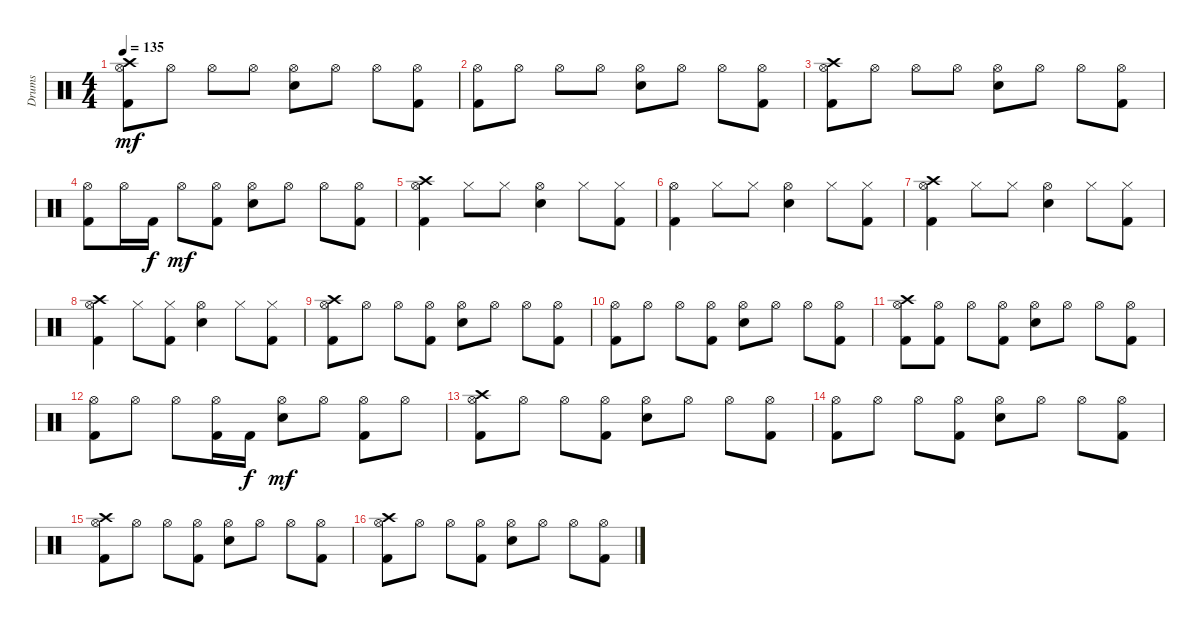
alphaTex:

\track ("Drums" "Drums") {instrument percussion}
\staff {score}
\articulation defaults
\ts (4 4)
\tempo 135
\clef neutral
\ks c
("Kick (hit) 2" "Hi-Hat (open)" "Crash high (hit)").8{dy mf} "Hi-Hat (open)".8 "Hi-Hat (open)".8 "Hi-Hat (open)".8 ("Snare (hit) 2" "Hi-Hat (open)").8 "Hi-Hat (open)".8 "Hi-Hat (open)".8 ("Kick (hit) 2" "Hi-Hat (open)").8 |
("Kick (hit) 2" "Hi-Hat (open)").8 "Hi-Hat (open)".8 "Hi-Hat (open)".8 "Hi-Hat (open)".8 ("Snare (hit) 2" "Hi-Hat (open)").8 "Hi-Hat (open)".8 "Hi-Hat (open)".8 ("Kick (hit) 2" "Hi-Hat (open)").8 |
("Kick (hit) 2" "Hi-Hat (open)" "Crash high (hit)").8 "Hi-Hat (open)".8 "Hi-Hat (open)".8 "Hi-Hat (open)".8 ("Snare (hit) 2" "Hi-Hat (open)").8 "Hi-Hat (open)".8 "Hi-Hat (open)".8 ("Kick (hit) 2" "Hi-Hat (open)").8 |
("Kick (hit) 2" "Hi-Hat (open)").8 "Hi-Hat (open)".16 "Kick (hit) 2".16{dy f} "Hi-Hat (open)".8{dy mf} ("Kick (hit) 2" "Hi-Hat (open)").8 ("Snare (hit) 2" "Hi-Hat (open)").8 "Hi-Hat (open)".8 "Hi-Hat (open)".8 ("Kick (hit) 2" "Hi-Hat (open)").8 |
("Kick (hit) 2" "Hi-Hat (open)" "Crash high (hit)").4 "Hi-Hat (closed)".8 "Hi-Hat (closed)".8 ("Snare (hit) 2" "Hi-Hat (open)").4 "Hi-Hat (closed)".8 ("Kick (hit) 2" "Hi-Hat (closed)").8 |
("Kick (hit) 2" "Hi-Hat (open)").4 "Hi-Hat (closed)".8 "Hi-Hat (closed)".8 ("Snare (hit) 2" "Hi-Hat (open)").4 "Hi-Hat (closed)".8 ("Kick (hit) 2" "Hi-Hat (closed)").8 |
("Kick (hit) 2" "Hi-Hat (open)" "Crash high (hit)").4 "Hi-Hat (closed)".8 "Hi-Hat (closed)".8 ("Snare (hit) 2" "Hi-Hat (open)").4 "Hi-Hat (closed)".8 ("Kick (hit) 2" "Hi-Hat (closed)").8 |
("Kick (hit) 2" "Hi-Hat (open)" "Crash high (hit)").4 "Hi-Hat (closed)".8 ("Kick (hit) 2" "Hi-Hat (closed)").8 ("Snare (hit) 2" "Hi-Hat (open)").4 "Hi-Hat (closed)".8 ("Kick (hit) 2" "Hi-Hat (closed)").8 |
("Kick (hit) 2" "Hi-Hat (open)" "Crash high (hit)").8 "Hi-Hat (open)".8 "Hi-Hat (open)".8 ("Kick (hit) 2" "Hi-Hat (open)").8 ("Snare (hit) 2" "Hi-Hat (open)").8 "Hi-Hat (open)".8 "Hi-Hat (open)".8 ("Kick (hit) 2" "Hi-Hat (open)").8 |
("Kick (hit) 2" "Hi-Hat (open)").8 "Hi-Hat (open)".8 "Hi-Hat (open)".8 ("Kick (hit) 2" "Hi-Hat (open)").8 ("Snare (hit) 2" "Hi-Hat (open)").8 "Hi-Hat (open)".8 "Hi-Hat (open)".8 ("Kick (hit) 2" "Hi-Hat (open)").8 |
("Kick (hit) 2" "Hi-Hat (open)" "Crash high (hit)").8 ("Kick (hit) 2" "Hi-Hat (open)").8 "Hi-Hat (open)".8 ("Kick (hit) 2" "Hi-Hat (open)").8 ("Snare (hit) 2" "Hi-Hat (open)").8 "Hi-Hat (open)".8 "Hi-Hat (open)".8 ("Kick (hit) 2" "Hi-Hat (open)").8 |
("Kick (hit) 2" "Hi-Hat (open)").8 "Hi-Hat (open)".8 "Hi-Hat (open)".8 ("Kick (hit) 2" "Hi-Hat (open)").16 "Kick (hit) 2".16{dy f} ("Snare (hit) 2" "Hi-Hat (open)").8{dy mf} "Hi-Hat (open)".8 ("Kick (hit) 2" "Hi-Hat (open)").8 "Hi-Hat (open)".8 |
("Kick (hit) 2" "Hi-Hat (open)" "Crash high (hit)").8 "Hi-Hat (open)".8 "Hi-Hat (open)".8 ("Kick (hit) 2" "Hi-Hat (open)").8 ("Snare (hit) 2" "Hi-Hat (open)").8 "Hi-Hat (open)".8 "Hi-Hat (open)".8 ("Kick (hit) 2" "Hi-Hat (open)").8 |
("Kick (hit) 2" "Hi-Hat (open)").8 "Hi-Hat (open)".8 "Hi-Hat (open)".8 ("Kick (hit) 2" "Hi-Hat (open)").8 ("Snare (hit) 2" "Hi-Hat (open)").8 "Hi-Hat (open)".8 "Hi-Hat (open)".8 ("Kick (hit) 2" "Hi-Hat (open)").8 |
("Kick (hit) 2" "Hi-Hat (open)" "Crash high (hit)").8 "Hi-Hat (open)".8 "Hi-Hat (open)".8 ("Kick (hit) 2" "Hi-Hat (open)").8 ("Snare (hit) 2" "Hi-Hat (open)").8 "Hi-Hat (open)".8 "Hi-Hat (open)".8 ("Kick (hit) 2" "Hi-Hat (open)").8 |
("Kick (hit) 2" "Hi-Hat (open)" "Crash high (hit)").8 "Hi-Hat (open)".8 "Hi-Hat (open)".8 ("Kick (hit) 2" "Hi-Hat (open)").8 ("Snare (hit) 2" "Hi-Hat (open)").8 "Hi-Hat (open)".8 "Hi-Hat (open)".8 ("Kick (hit) 2" "Hi-Hat (open)").8
